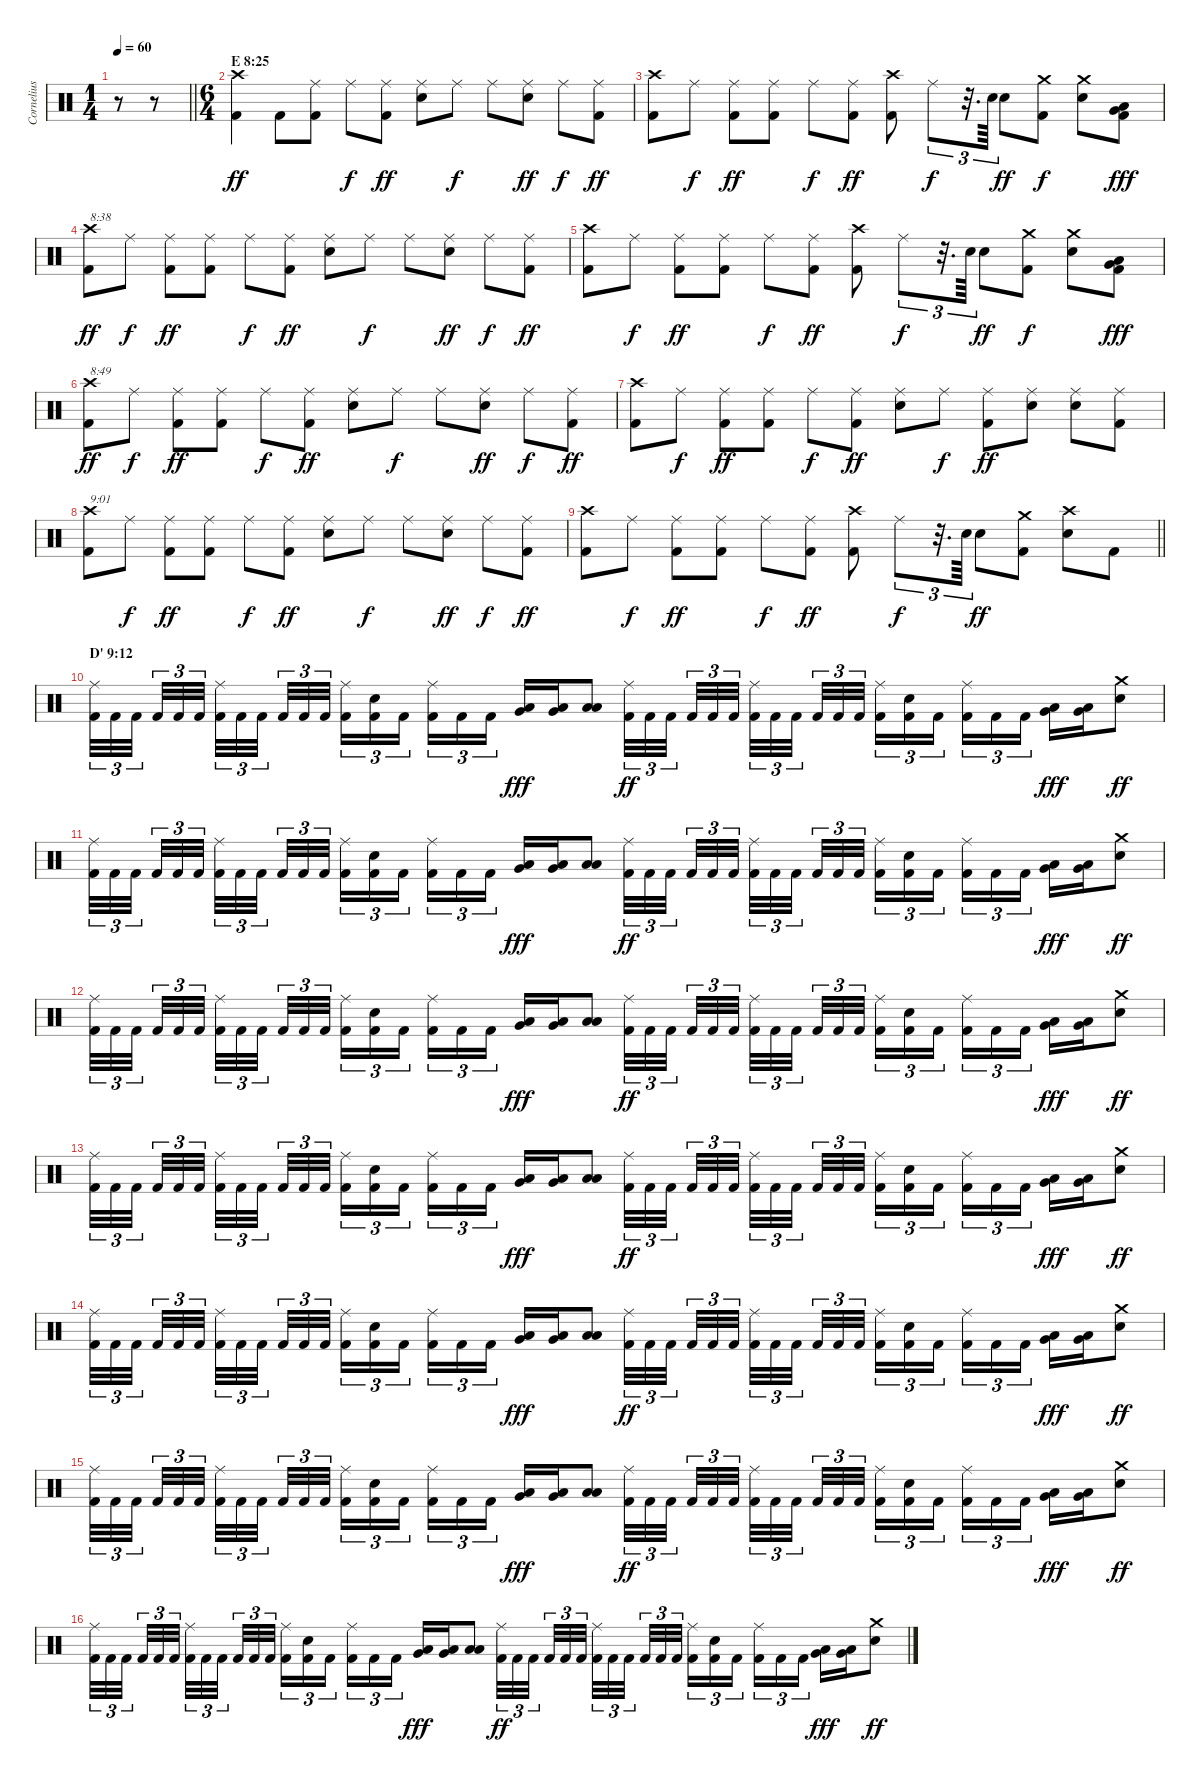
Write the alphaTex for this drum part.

\track ("Cornelius Althammer (Drums)" "Cornelius ") {instrument percussion}
\staff {score}
\articulation defaults
\ts (1 4)
\tempo 60
\clef neutral
\barLineRight lightlight
\ks c
r.8{dy ff} r.8 |
\ts (6 4)
\section ("" "E 8:25")
("Crash high (hit)" "Kick (hit) 2").4 "Kick (hit) 2".8 ("Ride (middle)" "Kick (hit) 2").8 "Ride (middle)".8{dy f} ("Ride (middle)" "Kick (hit) 2").8{dy ff} ("Ride (middle)" "Electric Snare (hit)").8 "Ride (middle)".8{dy f} "Ride (middle)".8 ("Ride (middle)" "Electric Snare (hit)").8{dy ff} "Ride (middle)".8{dy f} ("Ride (middle)" "Kick (hit) 2").8{dy ff} |
("Crash high (hit)" "Kick (hit) 2").8 "Ride (middle)".8{dy f} ("Ride (middle)" "Kick (hit) 2").8{dy ff} ("Ride (middle)" "Kick (hit) 2").8 "Ride (middle)".8{dy f} ("Ride (middle)" "Kick (hit) 2").8{dy ff} ("Crash high (hit)" "Kick (hit) 2").8 "Ride (middle)".8{tu (3 2) dy f} r.32{d tu (3 2)} "Electric Snare (hit)".64{tu (3 2)} "Electric Snare (hit)".8{dy ff} ("Crash medium (hit)" "Kick (hit) 2").8{dy f} ("Crash medium (hit)" "Electric Snare (hit)").8 ("Very Low Tom (hit)" "Low Floor Tom (hit)" "Kick (hit) 2").8{dy fff} |
("Crash high (hit)" "Kick (hit) 2").8{txt "8:38" dy ff} "Ride (middle)".8{dy f} ("Ride (middle)" "Kick (hit) 2").8{dy ff} ("Ride (middle)" "Kick (hit) 2").8 "Ride (middle)".8{dy f} ("Ride (middle)" "Kick (hit) 2").8{dy ff} ("Ride (middle)" "Electric Snare (hit)").8 "Ride (middle)".8{dy f} "Ride (middle)".8 ("Ride (middle)" "Electric Snare (hit)").8{dy ff} "Ride (middle)".8{dy f} ("Ride (middle)" "Kick (hit) 2").8{dy ff} |
("Crash high (hit)" "Kick (hit) 2").8 "Ride (middle)".8{dy f} ("Ride (middle)" "Kick (hit) 2").8{dy ff} ("Ride (middle)" "Kick (hit) 2").8 "Ride (middle)".8{dy f} ("Ride (middle)" "Kick (hit) 2").8{dy ff} ("Crash high (hit)" "Kick (hit) 2").8 "Ride (middle)".8{tu (3 2) dy f} r.32{d tu (3 2)} "Electric Snare (hit)".64{tu (3 2)} "Electric Snare (hit)".8{dy ff} ("Crash medium (hit)" "Kick (hit) 2").8{dy f} ("Crash medium (hit)" "Electric Snare (hit)").8 ("Very Low Tom (hit)" "Low Floor Tom (hit)" "Kick (hit) 2").8{dy fff} |
("Crash high (hit)" "Kick (hit) 2").8{txt "8:49" dy ff} "Ride (middle)".8{dy f} ("Ride (middle)" "Kick (hit) 2").8{dy ff} ("Ride (middle)" "Kick (hit) 2").8 "Ride (middle)".8{dy f} ("Ride (middle)" "Kick (hit) 2").8{dy ff} ("Ride (middle)" "Electric Snare (hit)").8 "Ride (middle)".8{dy f} "Ride (middle)".8 ("Ride (middle)" "Electric Snare (hit)").8{dy ff} "Ride (middle)".8{dy f} ("Ride (middle)" "Kick (hit) 2").8{dy ff} |
("Crash high (hit)" "Kick (hit) 2").8 "Ride (middle)".8{dy f} ("Ride (middle)" "Kick (hit) 2").8{dy ff} ("Ride (middle)" "Kick (hit) 2").8 "Ride (middle)".8{dy f} ("Ride (middle)" "Kick (hit) 2").8{dy ff} ("Ride (middle)" "Electric Snare (hit)").8 "Ride (middle)".8{dy f} ("Ride (middle)" "Kick (hit) 2").8{dy ff} ("Ride (middle)" "Electric Snare (hit)").8 ("Ride (middle)" "Electric Snare (hit)").8 ("Ride (middle)" "Kick (hit) 2").8 |
("Crash high (hit)" "Kick (hit) 2").8{txt "9:01"} "Ride (middle)".8{dy f} ("Ride (middle)" "Kick (hit) 2").8{dy ff} ("Ride (middle)" "Kick (hit) 2").8 "Ride (middle)".8{dy f} ("Ride (middle)" "Kick (hit) 2").8{dy ff} ("Ride (middle)" "Electric Snare (hit)").8 "Ride (middle)".8{dy f} "Ride (middle)".8 ("Ride (middle)" "Electric Snare (hit)").8{dy ff} "Ride (middle)".8{dy f} ("Ride (middle)" "Kick (hit) 2").8{dy ff} |
\barLineRight lightlight
("Crash high (hit)" "Kick (hit) 2").8 "Ride (middle)".8{dy f} ("Ride (middle)" "Kick (hit) 2").8{dy ff} ("Ride (middle)" "Kick (hit) 2").8 "Ride (middle)".8{dy f} ("Ride (middle)" "Kick (hit) 2").8{dy ff} ("Crash high (hit)" "Kick (hit) 2").8 "Ride (middle)".8{tu (3 2) dy f} r.32{d tu (3 2)} "Electric Snare (hit)".64{tu (3 2)} "Electric Snare (hit)".8{dy ff} ("Crash medium (hit)" "Kick (hit) 2").8 ("Crash high (hit)" "Electric Snare (hit)").8 "Kick (hit) 2".8 |
\section ("" "D' 9:12")
("Ride (middle)" "Kick (hit) 2").32{tu (3 2)} "Kick (hit) 2".32{tu (3 2)} "Kick (hit) 2".32{tu (3 2) beam splitsecondary} "Kick (hit) 2".32{tu (3 2)} "Kick (hit) 2".32{tu (3 2)} "Kick (hit) 2".32{tu (3 2) beam splitsecondary} ("Ride (middle)" "Kick (hit) 2").32{tu (3 2)} "Kick (hit) 2".32{tu (3 2)} "Kick (hit) 2".32{tu (3 2) beam splitsecondary} "Kick (hit) 2".32{tu (3 2)} "Kick (hit) 2".32{tu (3 2)} "Kick (hit) 2".32{tu (3 2) beam splitsecondary} ("Ride (middle)" "Kick (hit) 2").16{tu (3 2)} ("Electric Snare (hit)" "Kick (hit) 2").16{tu (3 2)} "Kick (hit) 2".16{tu (3 2) beam splitsecondary} ("Ride (middle)" "Kick (hit) 2").16{tu (3 2)} "Kick (hit) 2".16{tu (3 2)} "Kick (hit) 2".16{tu (3 2) beam splitsecondary} ("Low Floor Tom (hit)" "Very Low Tom (hit)").16{dy fff} ("Low Tom (hit)" "Very Low Tom (hit)").16 ("Low Tom (hit)" "Low Floor Tom (hit)").8 ("Ride (middle)" "Kick (hit) 2").32{tu (3 2) dy ff} "Kick (hit) 2".32{tu (3 2)} "Kick (hit) 2".32{tu (3 2) beam splitsecondary} "Kick (hit) 2".32{tu (3 2)} "Kick (hit) 2".32{tu (3 2)} "Kick (hit) 2".32{tu (3 2) beam splitsecondary} ("Ride (middle)" "Kick (hit) 2").32{tu (3 2)} "Kick (hit) 2".32{tu (3 2)} "Kick (hit) 2".32{tu (3 2) beam splitsecondary} "Kick (hit) 2".32{tu (3 2)} "Kick (hit) 2".32{tu (3 2)} "Kick (hit) 2".32{tu (3 2) beam splitsecondary} ("Ride (middle)" "Kick (hit) 2").16{tu (3 2)} ("Electric Snare (hit)" "Kick (hit) 2").16{tu (3 2)} "Kick (hit) 2".16{tu (3 2) beam splitsecondary} ("Ride (middle)" "Kick (hit) 2").16{tu (3 2)} "Kick (hit) 2".16{tu (3 2)} "Kick (hit) 2".16{tu (3 2) beam splitsecondary} ("Low Floor Tom (hit)" "Very Low Tom (hit)").16{dy fff} ("Low Tom (hit)" "Very Low Tom (hit)").16 ("Crash medium (hit)" "Electric Snare (hit)").8{dy ff} |
("Ride (middle)" "Kick (hit) 2").32{tu (3 2)} "Kick (hit) 2".32{tu (3 2)} "Kick (hit) 2".32{tu (3 2) beam splitsecondary} "Kick (hit) 2".32{tu (3 2)} "Kick (hit) 2".32{tu (3 2)} "Kick (hit) 2".32{tu (3 2) beam splitsecondary} ("Ride (middle)" "Kick (hit) 2").32{tu (3 2)} "Kick (hit) 2".32{tu (3 2)} "Kick (hit) 2".32{tu (3 2) beam splitsecondary} "Kick (hit) 2".32{tu (3 2)} "Kick (hit) 2".32{tu (3 2)} "Kick (hit) 2".32{tu (3 2) beam splitsecondary} ("Ride (middle)" "Kick (hit) 2").16{tu (3 2)} ("Electric Snare (hit)" "Kick (hit) 2").16{tu (3 2)} "Kick (hit) 2".16{tu (3 2) beam splitsecondary} ("Ride (middle)" "Kick (hit) 2").16{tu (3 2)} "Kick (hit) 2".16{tu (3 2)} "Kick (hit) 2".16{tu (3 2) beam splitsecondary} ("Low Floor Tom (hit)" "Very Low Tom (hit)").16{dy fff} ("Low Tom (hit)" "Very Low Tom (hit)").16 ("Low Floor Tom (hit)" "Low Tom (hit)").8 ("Ride (middle)" "Kick (hit) 2").32{tu (3 2) dy ff} "Kick (hit) 2".32{tu (3 2)} "Kick (hit) 2".32{tu (3 2) beam splitsecondary} "Kick (hit) 2".32{tu (3 2)} "Kick (hit) 2".32{tu (3 2)} "Kick (hit) 2".32{tu (3 2) beam splitsecondary} ("Ride (middle)" "Kick (hit) 2").32{tu (3 2)} "Kick (hit) 2".32{tu (3 2)} "Kick (hit) 2".32{tu (3 2) beam splitsecondary} "Kick (hit) 2".32{tu (3 2)} "Kick (hit) 2".32{tu (3 2)} "Kick (hit) 2".32{tu (3 2) beam splitsecondary} ("Ride (middle)" "Kick (hit) 2").16{tu (3 2)} ("Electric Snare (hit)" "Kick (hit) 2").16{tu (3 2)} "Kick (hit) 2".16{tu (3 2) beam splitsecondary} ("Ride (middle)" "Kick (hit) 2").16{tu (3 2)} "Kick (hit) 2".16{tu (3 2)} "Kick (hit) 2".16{tu (3 2) beam splitsecondary} ("Low Floor Tom (hit)" "Very Low Tom (hit)").16{dy fff} ("Low Tom (hit)" "Very Low Tom (hit)").16 ("Crash medium (hit)" "Electric Snare (hit)").8{dy ff} |
("Ride (middle)" "Kick (hit) 2").32{tu (3 2)} "Kick (hit) 2".32{tu (3 2)} "Kick (hit) 2".32{tu (3 2) beam splitsecondary} "Kick (hit) 2".32{tu (3 2)} "Kick (hit) 2".32{tu (3 2)} "Kick (hit) 2".32{tu (3 2) beam splitsecondary} ("Ride (middle)" "Kick (hit) 2").32{tu (3 2)} "Kick (hit) 2".32{tu (3 2)} "Kick (hit) 2".32{tu (3 2) beam splitsecondary} "Kick (hit) 2".32{tu (3 2)} "Kick (hit) 2".32{tu (3 2)} "Kick (hit) 2".32{tu (3 2) beam splitsecondary} ("Ride (middle)" "Kick (hit) 2").16{tu (3 2)} ("Electric Snare (hit)" "Kick (hit) 2").16{tu (3 2)} "Kick (hit) 2".16{tu (3 2) beam splitsecondary} ("Ride (middle)" "Kick (hit) 2").16{tu (3 2)} "Kick (hit) 2".16{tu (3 2)} "Kick (hit) 2".16{tu (3 2) beam splitsecondary} ("Low Floor Tom (hit)" "Very Low Tom (hit)").16{dy fff} ("Low Tom (hit)" "Very Low Tom (hit)").16 ("Low Floor Tom (hit)" "Low Tom (hit)").8 ("Ride (middle)" "Kick (hit) 2").32{tu (3 2) dy ff} "Kick (hit) 2".32{tu (3 2)} "Kick (hit) 2".32{tu (3 2) beam splitsecondary} "Kick (hit) 2".32{tu (3 2)} "Kick (hit) 2".32{tu (3 2)} "Kick (hit) 2".32{tu (3 2) beam splitsecondary} ("Ride (middle)" "Kick (hit) 2").32{tu (3 2)} "Kick (hit) 2".32{tu (3 2)} "Kick (hit) 2".32{tu (3 2) beam splitsecondary} "Kick (hit) 2".32{tu (3 2)} "Kick (hit) 2".32{tu (3 2)} "Kick (hit) 2".32{tu (3 2) beam splitsecondary} ("Ride (middle)" "Kick (hit) 2").16{tu (3 2)} ("Electric Snare (hit)" "Kick (hit) 2").16{tu (3 2)} "Kick (hit) 2".16{tu (3 2) beam splitsecondary} ("Ride (middle)" "Kick (hit) 2").16{tu (3 2)} "Kick (hit) 2".16{tu (3 2)} "Kick (hit) 2".16{tu (3 2) beam splitsecondary} ("Low Floor Tom (hit)" "Very Low Tom (hit)").16{dy fff} ("Low Tom (hit)" "Very Low Tom (hit)").16 ("Crash medium (hit)" "Electric Snare (hit)").8{dy ff} |
("Ride (middle)" "Kick (hit) 2").32{tu (3 2)} "Kick (hit) 2".32{tu (3 2)} "Kick (hit) 2".32{tu (3 2) beam splitsecondary} "Kick (hit) 2".32{tu (3 2)} "Kick (hit) 2".32{tu (3 2)} "Kick (hit) 2".32{tu (3 2) beam splitsecondary} ("Ride (middle)" "Kick (hit) 2").32{tu (3 2)} "Kick (hit) 2".32{tu (3 2)} "Kick (hit) 2".32{tu (3 2) beam splitsecondary} "Kick (hit) 2".32{tu (3 2)} "Kick (hit) 2".32{tu (3 2)} "Kick (hit) 2".32{tu (3 2) beam splitsecondary} ("Ride (middle)" "Kick (hit) 2").16{tu (3 2)} ("Electric Snare (hit)" "Kick (hit) 2").16{tu (3 2)} "Kick (hit) 2".16{tu (3 2) beam splitsecondary} ("Ride (middle)" "Kick (hit) 2").16{tu (3 2)} "Kick (hit) 2".16{tu (3 2)} "Kick (hit) 2".16{tu (3 2) beam splitsecondary} ("Low Floor Tom (hit)" "Very Low Tom (hit)").16{dy fff} ("Low Tom (hit)" "Very Low Tom (hit)").16 ("Low Floor Tom (hit)" "Low Tom (hit)").8 ("Ride (middle)" "Kick (hit) 2").32{tu (3 2) dy ff} "Kick (hit) 2".32{tu (3 2)} "Kick (hit) 2".32{tu (3 2) beam splitsecondary} "Kick (hit) 2".32{tu (3 2)} "Kick (hit) 2".32{tu (3 2)} "Kick (hit) 2".32{tu (3 2) beam splitsecondary} ("Ride (middle)" "Kick (hit) 2").32{tu (3 2)} "Kick (hit) 2".32{tu (3 2)} "Kick (hit) 2".32{tu (3 2) beam splitsecondary} "Kick (hit) 2".32{tu (3 2)} "Kick (hit) 2".32{tu (3 2)} "Kick (hit) 2".32{tu (3 2) beam splitsecondary} ("Ride (middle)" "Kick (hit) 2").16{tu (3 2)} ("Electric Snare (hit)" "Kick (hit) 2").16{tu (3 2)} "Kick (hit) 2".16{tu (3 2) beam splitsecondary} ("Ride (middle)" "Kick (hit) 2").16{tu (3 2)} "Kick (hit) 2".16{tu (3 2)} "Kick (hit) 2".16{tu (3 2) beam splitsecondary} ("Low Floor Tom (hit)" "Very Low Tom (hit)").16{dy fff} ("Low Tom (hit)" "Very Low Tom (hit)").16 ("Crash medium (hit)" "Electric Snare (hit)").8{dy ff} |
("Ride (middle)" "Kick (hit) 2").32{tu (3 2)} "Kick (hit) 2".32{tu (3 2)} "Kick (hit) 2".32{tu (3 2) beam splitsecondary} "Kick (hit) 2".32{tu (3 2)} "Kick (hit) 2".32{tu (3 2)} "Kick (hit) 2".32{tu (3 2) beam splitsecondary} ("Ride (middle)" "Kick (hit) 2").32{tu (3 2)} "Kick (hit) 2".32{tu (3 2)} "Kick (hit) 2".32{tu (3 2) beam splitsecondary} "Kick (hit) 2".32{tu (3 2)} "Kick (hit) 2".32{tu (3 2)} "Kick (hit) 2".32{tu (3 2) beam splitsecondary} ("Ride (middle)" "Kick (hit) 2").16{tu (3 2)} ("Electric Snare (hit)" "Kick (hit) 2").16{tu (3 2)} "Kick (hit) 2".16{tu (3 2) beam splitsecondary} ("Ride (middle)" "Kick (hit) 2").16{tu (3 2)} "Kick (hit) 2".16{tu (3 2)} "Kick (hit) 2".16{tu (3 2) beam splitsecondary} ("Low Floor Tom (hit)" "Very Low Tom (hit)").16{dy fff} ("Low Tom (hit)" "Very Low Tom (hit)").16 ("Low Floor Tom (hit)" "Low Tom (hit)").8 ("Ride (middle)" "Kick (hit) 2").32{tu (3 2) dy ff} "Kick (hit) 2".32{tu (3 2)} "Kick (hit) 2".32{tu (3 2) beam splitsecondary} "Kick (hit) 2".32{tu (3 2)} "Kick (hit) 2".32{tu (3 2)} "Kick (hit) 2".32{tu (3 2) beam splitsecondary} ("Ride (middle)" "Kick (hit) 2").32{tu (3 2)} "Kick (hit) 2".32{tu (3 2)} "Kick (hit) 2".32{tu (3 2) beam splitsecondary} "Kick (hit) 2".32{tu (3 2)} "Kick (hit) 2".32{tu (3 2)} "Kick (hit) 2".32{tu (3 2) beam splitsecondary} ("Ride (middle)" "Kick (hit) 2").16{tu (3 2)} ("Electric Snare (hit)" "Kick (hit) 2").16{tu (3 2)} "Kick (hit) 2".16{tu (3 2) beam splitsecondary} ("Ride (middle)" "Kick (hit) 2").16{tu (3 2)} "Kick (hit) 2".16{tu (3 2)} "Kick (hit) 2".16{tu (3 2) beam splitsecondary} ("Low Floor Tom (hit)" "Very Low Tom (hit)").16{dy fff} ("Low Tom (hit)" "Very Low Tom (hit)").16 ("Crash medium (hit)" "Electric Snare (hit)").8{dy ff} |
("Ride (middle)" "Kick (hit) 2").32{tu (3 2)} "Kick (hit) 2".32{tu (3 2)} "Kick (hit) 2".32{tu (3 2) beam splitsecondary} "Kick (hit) 2".32{tu (3 2)} "Kick (hit) 2".32{tu (3 2)} "Kick (hit) 2".32{tu (3 2) beam splitsecondary} ("Ride (middle)" "Kick (hit) 2").32{tu (3 2)} "Kick (hit) 2".32{tu (3 2)} "Kick (hit) 2".32{tu (3 2) beam splitsecondary} "Kick (hit) 2".32{tu (3 2)} "Kick (hit) 2".32{tu (3 2)} "Kick (hit) 2".32{tu (3 2) beam splitsecondary} ("Ride (middle)" "Kick (hit) 2").16{tu (3 2)} ("Electric Snare (hit)" "Kick (hit) 2").16{tu (3 2)} "Kick (hit) 2".16{tu (3 2) beam splitsecondary} ("Ride (middle)" "Kick (hit) 2").16{tu (3 2)} "Kick (hit) 2".16{tu (3 2)} "Kick (hit) 2".16{tu (3 2) beam splitsecondary} ("Low Floor Tom (hit)" "Very Low Tom (hit)").16{dy fff} ("Low Tom (hit)" "Very Low Tom (hit)").16 ("Low Floor Tom (hit)" "Low Tom (hit)").8 ("Ride (middle)" "Kick (hit) 2").32{tu (3 2) dy ff} "Kick (hit) 2".32{tu (3 2)} "Kick (hit) 2".32{tu (3 2) beam splitsecondary} "Kick (hit) 2".32{tu (3 2)} "Kick (hit) 2".32{tu (3 2)} "Kick (hit) 2".32{tu (3 2) beam splitsecondary} ("Ride (middle)" "Kick (hit) 2").32{tu (3 2)} "Kick (hit) 2".32{tu (3 2)} "Kick (hit) 2".32{tu (3 2) beam splitsecondary} "Kick (hit) 2".32{tu (3 2)} "Kick (hit) 2".32{tu (3 2)} "Kick (hit) 2".32{tu (3 2) beam splitsecondary} ("Ride (middle)" "Kick (hit) 2").16{tu (3 2)} ("Electric Snare (hit)" "Kick (hit) 2").16{tu (3 2)} "Kick (hit) 2".16{tu (3 2) beam splitsecondary} ("Ride (middle)" "Kick (hit) 2").16{tu (3 2)} "Kick (hit) 2".16{tu (3 2)} "Kick (hit) 2".16{tu (3 2) beam splitsecondary} ("Low Floor Tom (hit)" "Very Low Tom (hit)").16{dy fff} ("Low Tom (hit)" "Very Low Tom (hit)").16 ("Crash medium (hit)" "Electric Snare (hit)").8{dy ff} |
("Ride (middle)" "Kick (hit) 2").32{tu (3 2)} "Kick (hit) 2".32{tu (3 2)} "Kick (hit) 2".32{tu (3 2) beam splitsecondary} "Kick (hit) 2".32{tu (3 2)} "Kick (hit) 2".32{tu (3 2)} "Kick (hit) 2".32{tu (3 2) beam splitsecondary} ("Ride (middle)" "Kick (hit) 2").32{tu (3 2)} "Kick (hit) 2".32{tu (3 2)} "Kick (hit) 2".32{tu (3 2) beam splitsecondary} "Kick (hit) 2".32{tu (3 2)} "Kick (hit) 2".32{tu (3 2)} "Kick (hit) 2".32{tu (3 2) beam splitsecondary} ("Ride (middle)" "Kick (hit) 2").16{tu (3 2)} ("Electric Snare (hit)" "Kick (hit) 2").16{tu (3 2)} "Kick (hit) 2".16{tu (3 2) beam splitsecondary} ("Ride (middle)" "Kick (hit) 2").16{tu (3 2)} "Kick (hit) 2".16{tu (3 2)} "Kick (hit) 2".16{tu (3 2) beam splitsecondary} ("Low Floor Tom (hit)" "Very Low Tom (hit)").16{dy fff} ("Low Tom (hit)" "Very Low Tom (hit)").16 ("Low Floor Tom (hit)" "Low Tom (hit)").8 ("Ride (middle)" "Kick (hit) 2").32{tu (3 2) dy ff} "Kick (hit) 2".32{tu (3 2)} "Kick (hit) 2".32{tu (3 2) beam splitsecondary} "Kick (hit) 2".32{tu (3 2)} "Kick (hit) 2".32{tu (3 2)} "Kick (hit) 2".32{tu (3 2) beam splitsecondary} ("Ride (middle)" "Kick (hit) 2").32{tu (3 2)} "Kick (hit) 2".32{tu (3 2)} "Kick (hit) 2".32{tu (3 2) beam splitsecondary} "Kick (hit) 2".32{tu (3 2)} "Kick (hit) 2".32{tu (3 2)} "Kick (hit) 2".32{tu (3 2) beam splitsecondary} ("Ride (middle)" "Kick (hit) 2").16{tu (3 2)} ("Electric Snare (hit)" "Kick (hit) 2").16{tu (3 2)} "Kick (hit) 2".16{tu (3 2) beam splitsecondary} ("Ride (middle)" "Kick (hit) 2").16{tu (3 2)} "Kick (hit) 2".16{tu (3 2)} "Kick (hit) 2".16{tu (3 2) beam splitsecondary} ("Low Floor Tom (hit)" "Very Low Tom (hit)").16{dy fff} ("Low Tom (hit)" "Very Low Tom (hit)").16 ("Crash medium (hit)" "Electric Snare (hit)").8{dy ff}
